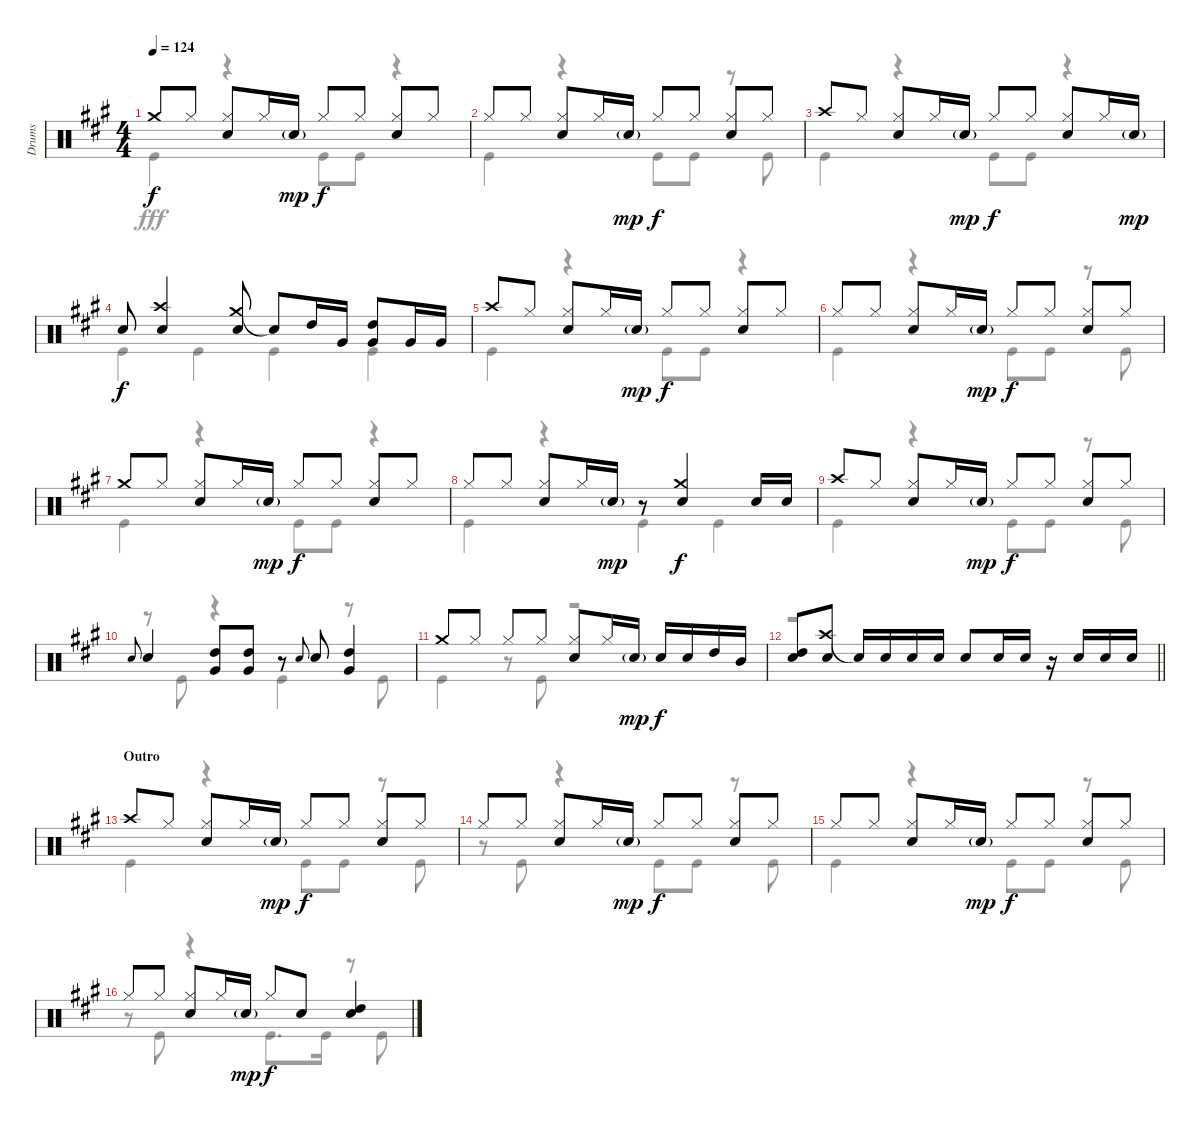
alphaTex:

\track ("Drums" "Drums") {instrument percussion}
\staff {score}
\articulation defaults
\voice
\ts (4 4)
\tempo 124
\clef neutral
\ks a "Crash medium (hit)".8{dy f} "Hi-Hat (closed)".8
("Hi-Hat (closed)" "Snare (hit) 2").8 "Hi-Hat (closed)".16 "Snare (hit) 2"{g}.16{dy mp} "Hi-Hat (closed)".8{dy f} "Hi-Hat (closed)".8 ("Hi-Hat (closed)" "Snare (hit) 2").8 "Hi-Hat (closed)".8 |
"Hi-Hat (closed)".8 "Hi-Hat (closed)".8 ("Hi-Hat (closed)" "Snare (hit) 2").8 "Hi-Hat (closed)".16 "Snare (hit) 2"{g}.16{dy mp} "Hi-Hat (closed)".8{dy f} "Hi-Hat (closed)".8 ("Hi-Hat (closed)" "Snare (hit) 2").8 "Hi-Hat (closed)".8 |
"Crash high (hit)".8 "Hi-Hat (closed)".8 ("Hi-Hat (closed)" "Snare (hit) 2").8 "Hi-Hat (closed)".16 "Snare (hit) 2"{g}.16{dy mp} "Hi-Hat (closed)".8{dy f} "Hi-Hat (closed)".8 ("Hi-Hat (closed)" "Snare (hit) 2").8 "Hi-Hat (closed)".16 "Snare (hit) 2"{g}.16{dy mp} |
"Snare (hit) 2".8{dy f} ("Crash high (hit)" "Snare (hit) 2").4 ("Crash medium (hit)" "Snare (hit) 2").8 "Snare (hit)"{t}.8 "High Tom (hit)".16 "Very Low Tom (hit)".16 ("High Tom (hit)" "Very Low Tom (hit)").8 "Very Low Tom (hit)".16 "Very Low Tom (hit)".16 |
"Crash high (hit)".8 "Hi-Hat (closed)".8 ("Hi-Hat (closed)" "Snare (hit) 2").8 "Hi-Hat (closed)".16 "Snare (hit) 2"{g}.16{dy mp} "Hi-Hat (closed)".8{dy f} "Hi-Hat (closed)".8 ("Hi-Hat (closed)" "Snare (hit) 2").8 "Hi-Hat (closed)".8 |
"Hi-Hat (closed)".8 "Hi-Hat (closed)".8 ("Hi-Hat (closed)" "Snare (hit) 2").8 "Hi-Hat (closed)".16 "Snare (hit) 2"{g}.16{dy mp} "Hi-Hat (closed)".8{dy f} "Hi-Hat (closed)".8 ("Hi-Hat (closed)" "Snare (hit) 2").8 "Hi-Hat (closed)".8 |
"Crash medium (hit)".8 "Hi-Hat (closed)".8 ("Hi-Hat (closed)" "Snare (hit) 2").8 "Hi-Hat (closed)".16 "Snare (hit) 2"{g}.16{dy mp} "Hi-Hat (closed)".8{dy f} "Hi-Hat (closed)".8 ("Hi-Hat (closed)" "Snare (hit) 2").8 "Hi-Hat (closed)".8 |
"Hi-Hat (closed)".8 "Hi-Hat (closed)".8 ("Hi-Hat (closed)" "Snare (hit) 2").8 "Hi-Hat (closed)".16 "Snare (hit) 2"{g}.16{dy mp} r.8 ("Crash medium (hit)" "Snare (hit) 2").4{dy f} "Snare (hit) 2".16 "Snare (hit) 2".16 |
"Crash high (hit)".8 "Hi-Hat (closed)".8 ("Hi-Hat (closed)" "Snare (hit) 2").8 "Hi-Hat (closed)".16 "Snare (hit) 2"{g}.16{dy mp} "Hi-Hat (closed)".8{dy f} "Hi-Hat (closed)".8 ("Hi-Hat (closed)" "Snare (hit) 2").8 "Hi-Hat (closed)".8 |
"Snare (hit) 2".8{gr onbeat} "Snare (hit) 2".4 ("High Tom (hit)" "Very Low Tom (hit)").8 ("High Tom (hit)" "Very Low Tom (hit)").8 r.8 "Snare (hit) 2".8{gr onbeat} "Snare (hit) 2".8 ("High Tom (hit)" "Very Low Tom (hit)").4 |
"Crash medium (hit)".8 "Hi-Hat (closed)".8 "Hi-Hat (closed)".8 "Hi-Hat (closed)".8 ("Hi-Hat (closed)" "Snare (hit) 2").8 "Hi-Hat (closed)".16 "Snare (hit) 2"{g}.16{dy mp} "Snare (hit) 2".16{dy f} "Snare (hit) 2".16 "High Tom (hit)".16 "Mid Tom (hit)".16 |
\barLineRight lightlight
("High Tom (hit)" "Snare (hit) 2").8 ("Crash high (hit)" "Snare (hit) 2").8 "Snare (hit)"{t}.16 "Snare (hit) 2".16 "Snare (hit) 2".16 "Snare (hit) 2".16 "Snare (hit) 2".8 "Snare (hit) 2".16 "Snare (hit) 2".16 r.16 "Snare (hit) 2".16 "Snare (hit) 2".16 "Snare (hit) 2".16 |
\section ("" "Outro")
"Crash high (hit)".8 "Hi-Hat (closed)".8 ("Hi-Hat (closed)" "Snare (hit) 2").8 "Hi-Hat (closed)".16 "Snare (hit) 2"{g}.16{dy mp} "Hi-Hat (closed)".8{dy f} "Hi-Hat (closed)".8 ("Hi-Hat (closed)" "Snare (hit) 2").8 "Hi-Hat (closed)".8 |
"Hi-Hat (closed)".8 "Hi-Hat (closed)".8 ("Hi-Hat (closed)" "Snare (hit) 2").8 "Hi-Hat (closed)".16 "Snare (hit) 2"{g}.16{dy mp} "Hi-Hat (closed)".8{dy f} "Hi-Hat (closed)".8 ("Hi-Hat (closed)" "Snare (hit) 2").8 "Hi-Hat (closed)".8 |
"Hi-Hat (closed)".8 "Hi-Hat (closed)".8 ("Hi-Hat (closed)" "Snare (hit) 2").8 "Hi-Hat (closed)".16 "Snare (hit) 2"{g}.16{dy mp} "Hi-Hat (closed)".8{dy f} "Hi-Hat (closed)".8 ("Hi-Hat (closed)" "Snare (hit) 2").8 "Hi-Hat (closed)".8 |
"Hi-Hat (closed)".8 "Hi-Hat (closed)".8 ("Hi-Hat (closed)" "Snare (hit) 2").8 "Hi-Hat (closed)".16 "Snare (hit) 2"{g}.16{dy mp} "Hi-Hat (closed)".8{dy f} "Snare (hit) 2".8 ("Snare (hit) 2" "High Tom (hit)").4
\voice
\clef neutral
\ottava regular
\simile none
\ks a "Kick (hit)".4{dy fff}
r.4 "Kick (hit)".8 "Kick (hit)".8 r.4 |
"Kick (hit)".4 r.4 "Kick (hit)".8 "Kick (hit)".8 r.8 "Kick (hit)".8 |
"Kick (hit)".4 r.4 "Kick (hit)".8 "Kick (hit)".8 r.4 |
"Kick (hit)".4 "Kick (hit)".4 "Kick (hit)".4 "Kick (hit)".4 |
"Kick (hit)".4 r.4 "Kick (hit)".8 "Kick (hit)".8 r.4 |
"Kick (hit)".4 r.4 "Kick (hit)".8 "Kick (hit)".8 r.8 "Kick (hit)".8 |
"Kick (hit)".4 r.4 "Kick (hit)".8 "Kick (hit)".8 r.4 |
"Kick (hit)".4 r.4 "Kick (hit)".4 "Kick (hit)".4 |
"Kick (hit)".4 r.4 "Kick (hit)".8 "Kick (hit)".8 r.8 "Kick (hit)".8 |
r.8 "Kick (hit)".8 r.4 "Kick (hit)".4 r.8 "Kick (hit)".8 |
"Kick (hit)".4 r.8 "Kick (hit)".8 r.2 |
\barLineRight lightlight
r.1 |
"Kick (hit)".4 r.4 "Kick (hit)".8 "Kick (hit)".8 r.8 "Kick (hit)".8 |
r.8 "Kick (hit)".8 r.4 "Kick (hit)".8 "Kick (hit)".8 r.8 "Kick (hit)".8 |
"Kick (hit)".4 r.4 "Kick (hit)".8 "Kick (hit)".8 r.8 "Kick (hit)".8 |
r.8 "Kick (hit)".8 r.4 "Kick (hit)".8{d} "Kick (hit)".16 r.8 "Kick (hit)".8
